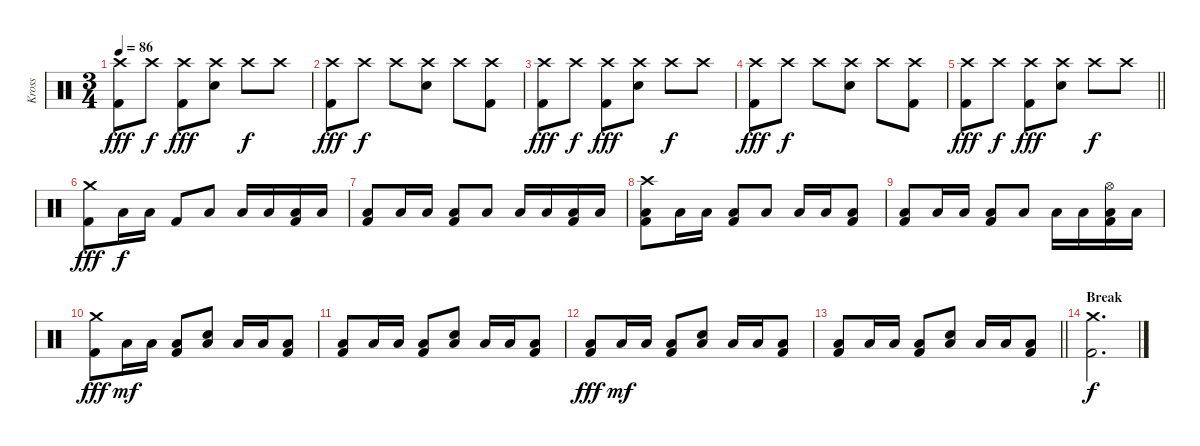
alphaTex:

\track ("Kross" "Kross") {instrument percussion}
\staff {score}
\articulation defaults
\ts (3 4)
\tempo 86
\clef neutral
\ks c
("Crash high (hit)" "Kick (hit) 2").8{dy fff} "Crash high (hit)".8{dy f} ("Crash high (hit)" "Kick (hit) 2").8{dy fff} ("Crash high (hit)" "Electric Snare (hit)").8 "Crash high (hit)".8{dy f} "Crash high (hit)".8 |
("Crash high (hit)" "Kick (hit) 2").8{dy fff} "Crash high (hit)".8{dy f} "Crash high (hit)".8 ("Crash high (hit)" "Electric Snare (hit)").8 "Crash high (hit)".8 ("Crash high (hit)" "Kick (hit) 2").8 |
("Crash high (hit)" "Kick (hit) 2").8{dy fff} "Crash high (hit)".8{dy f} ("Crash high (hit)" "Kick (hit) 2").8{dy fff} ("Crash high (hit)" "Electric Snare (hit)").8 "Crash high (hit)".8{dy f} "Crash high (hit)".8 |
("Crash high (hit)" "Kick (hit) 2").8{dy fff} "Crash high (hit)".8{dy f} "Crash high (hit)".8 ("Crash high (hit)" "Electric Snare (hit)").8 "Crash high (hit)".8 ("Crash high (hit)" "Kick (hit) 2").8 |
\barLineRight lightlight
("Crash high (hit)" "Kick (hit) 2").8{dy fff} "Crash high (hit)".8{dy f} ("Crash high (hit)" "Kick (hit) 2").8{dy fff} ("Crash high (hit)" "Electric Snare (hit)").8 "Crash high (hit)".8{dy f} "Crash high (hit)".8 |
("Crash medium (hit)" "Kick (hit) 2").8{dy fff} "Low Floor Tom (hit)".16{dy f} "Low Floor Tom (hit)".16 "Kick (hit) 2".8 "Low Floor Tom (hit)".8 "Low Floor Tom (hit)".16 "Low Floor Tom (hit)".16 ("Low Floor Tom (hit)" "Kick (hit) 2").16 "Low Floor Tom (hit)".16 |
("Low Floor Tom (hit)" "Kick (hit) 2").8 "Low Floor Tom (hit)".16 "Low Floor Tom (hit)".16 ("Low Floor Tom (hit)" "Kick (hit) 2").8 "Low Floor Tom (hit)".8 "Low Floor Tom (hit)".16 "Low Floor Tom (hit)".16 ("Low Floor Tom (hit)" "Kick (hit) 2").16 "Low Floor Tom (hit)".16 |
("Crash high (hit)" "Low Floor Tom (hit)" "Kick (hit) 2").8 "Low Floor Tom (hit)".16 "Low Floor Tom (hit)".16 ("Low Floor Tom (hit)" "Kick (hit) 2").8 "Low Floor Tom (hit)".8 "Low Floor Tom (hit)".16 "Low Floor Tom (hit)".16 ("Low Floor Tom (hit)" "Kick (hit) 2").8 |
("Low Floor Tom (hit)" "Kick (hit) 2").8 "Low Floor Tom (hit)".16 "Low Floor Tom (hit)".16 ("Low Floor Tom (hit)" "Kick (hit) 2").8 "Low Floor Tom (hit)".8 "Low Floor Tom (hit)".16 "Low Floor Tom (hit)".16 ("Hi-Hat (open)" "Low Floor Tom (hit)" "Kick (hit) 2").16 "Low Floor Tom (hit)".16 |
("Crash medium (hit)" "Kick (hit) 2").8{dy fff} "Low Floor Tom (hit)".16{dy mf} "Low Floor Tom (hit)".16 ("Low Floor Tom (hit)" "Kick (hit) 2").8 ("Low Floor Tom (hit)" "Electric Snare (hit)").8 "Low Floor Tom (hit)".16 "Low Floor Tom (hit)".16 ("Low Floor Tom (hit)" "Kick (hit) 2").8 |
("Low Floor Tom (hit)" "Kick (hit) 2").8 "Low Floor Tom (hit)".16 "Low Floor Tom (hit)".16 ("Low Floor Tom (hit)" "Kick (hit) 2").8 ("Low Floor Tom (hit)" "Electric Snare (hit)").8 "Low Floor Tom (hit)".16 "Low Floor Tom (hit)".16 ("Low Floor Tom (hit)" "Kick (hit) 2").8 |
("Low Floor Tom (hit)" "Kick (hit) 2").8{dy fff} "Low Floor Tom (hit)".16{dy mf} "Low Floor Tom (hit)".16 ("Low Floor Tom (hit)" "Kick (hit) 2").8 ("Low Floor Tom (hit)" "Electric Snare (hit)").8 "Low Floor Tom (hit)".16 "Low Floor Tom (hit)".16 ("Low Floor Tom (hit)" "Kick (hit) 2").8 |
\barLineRight lightlight
("Low Floor Tom (hit)" "Kick (hit) 2").8 "Low Floor Tom (hit)".16 "Low Floor Tom (hit)".16 ("Low Floor Tom (hit)" "Kick (hit) 2").8 ("Low Floor Tom (hit)" "Electric Snare (hit)").8 "Low Floor Tom (hit)".16 "Low Floor Tom (hit)".16 ("Low Floor Tom (hit)" "Kick (hit) 2").8 |
\section ("" "Break")
("Crash medium (hit)" "Kick (hit) 2").2{d dy f}
